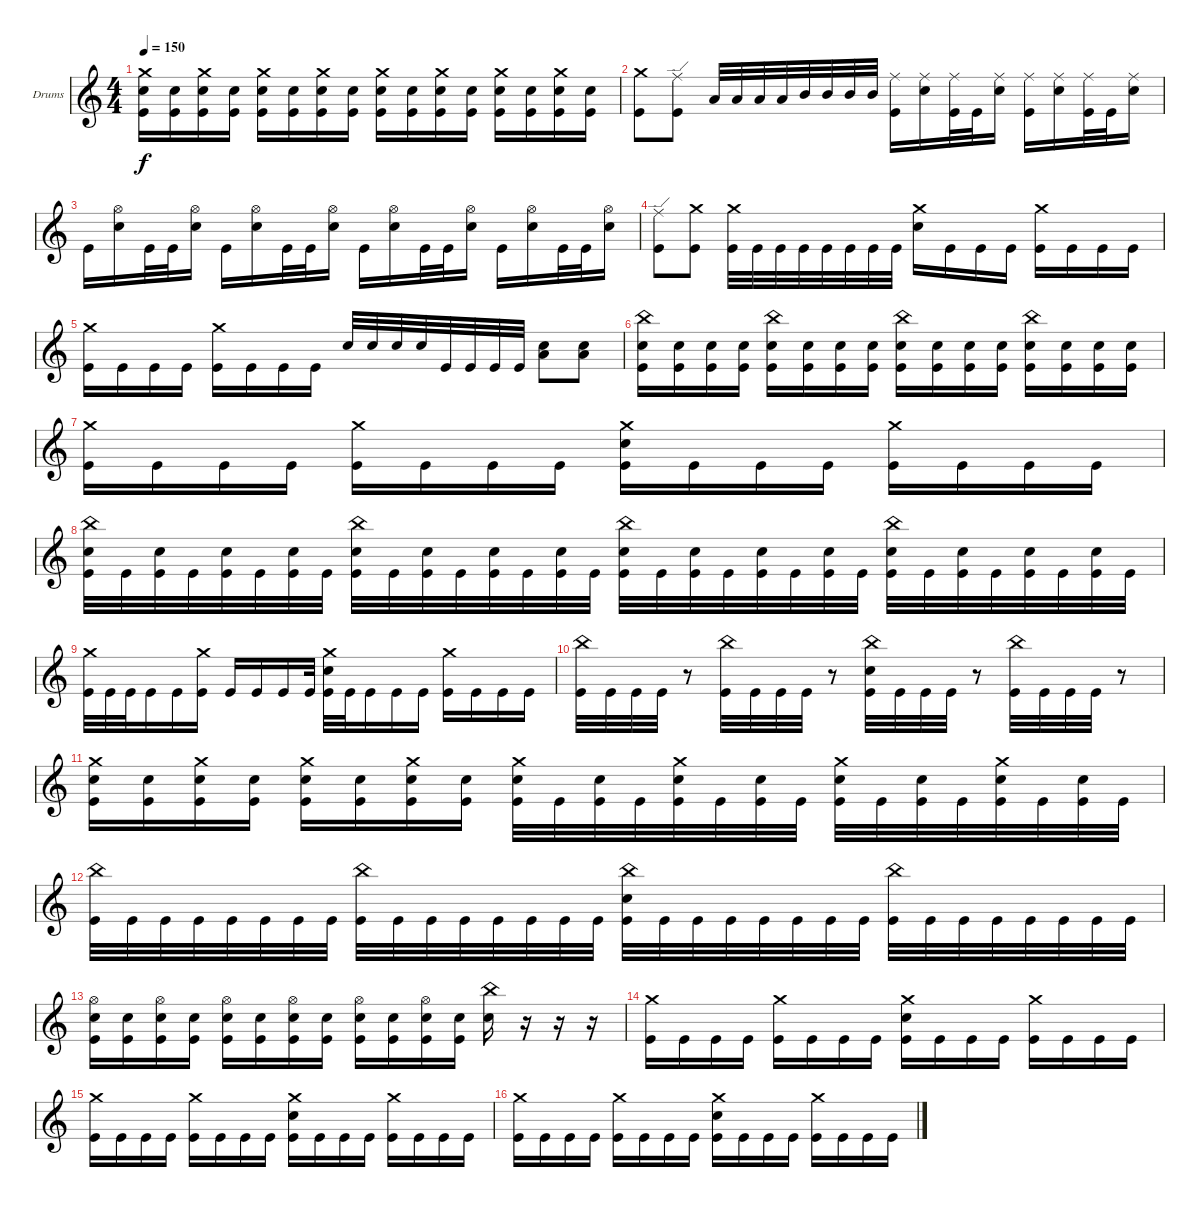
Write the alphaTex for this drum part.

\defaultSystemsLayout 4
\bracketExtendMode groupsimilarinstruments
\firstSystemTrackNameOrientation horizontal
\otherSystemsTrackNameOrientation horizontal
\track ("Drumkit" "Drums") {instrument percussion}
\staff {score}
\articulation defaults
\ts (4 4)
\tempo 150
\clef g2
\ks c
("Kick (hit)" "Snare (hit) 2" "Crash medium (hit)").16{dy f} ("Kick (hit)" "Snare (hit) 2").16 ("Kick (hit)" "Snare (hit) 2" "Crash medium (hit)").16 ("Kick (hit)" "Snare (hit) 2").16 ("Kick (hit)" "Snare (hit) 2" "Crash medium (hit)").16 ("Kick (hit)" "Snare (hit) 2").16 ("Kick (hit)" "Snare (hit) 2" "Crash medium (hit)").16 ("Kick (hit)" "Snare (hit) 2").16 ("Kick (hit)" "Snare (hit) 2" "Crash medium (hit)").16 ("Kick (hit)" "Snare (hit) 2").16 ("Kick (hit)" "Snare (hit) 2" "Crash medium (hit)").16 ("Kick (hit)" "Snare (hit) 2").16 ("Kick (hit)" "Snare (hit) 2" "Crash medium (hit)").16 ("Kick (hit)" "Snare (hit) 2").16 ("Kick (hit)" "Snare (hit) 2" "Crash medium (hit)").16 ("Kick (hit)" "Snare (hit) 2").16 |
("Kick (hit)" "Crash medium (hit)").8 ("Kick (hit)" "Ride (edge)").8 "Low Tom (hit)".32 "Low Tom (hit)".32 "Low Tom (hit)".32 "Low Tom (hit)".32 "Mid Tom (hit)".32 "Mid Tom (hit)".32 "Mid Tom (hit)".32 "Mid Tom (hit)".32 ("Kick (hit)" "Ride (middle)").16 ("Snare (hit) 2" "Ride (middle)").16 ("Kick (hit)" "Ride (middle)").32 "Kick (hit)".32 ("Snare (hit) 2" "Ride (middle)").16 ("Kick (hit)" "Ride (middle)").16 ("Snare (hit) 2" "Ride (middle)").16 ("Kick (hit)" "Ride (middle)").32 "Kick (hit)".32 ("Snare (hit) 2" "Ride (middle)").16 |
"Kick (hit)".16 ("Snare (hit) 2" "Hi-Hat (open)").16 "Kick (hit)".32 "Kick (hit)".32 ("Snare (hit) 2" "Hi-Hat (open)").16 "Kick (hit)".16 ("Snare (hit) 2" "Hi-Hat (open)").16 "Kick (hit)".32 "Kick (hit)".32 ("Snare (hit) 2" "Hi-Hat (open)").16 "Kick (hit)".16 ("Snare (hit) 2" "Hi-Hat (open)").16 "Kick (hit)".32 "Kick (hit)".32 ("Snare (hit) 2" "Hi-Hat (open)").16 "Kick (hit)".16 ("Snare (hit) 2" "Hi-Hat (open)").16 "Kick (hit)".32 "Kick (hit)".32 ("Snare (hit) 2" "Hi-Hat (open)").16 |
("Kick (hit)" "Ride (edge)").8 ("Kick (hit)" "Crash medium (hit)").8 ("Kick (hit)" "Crash medium (hit)").32 "Kick (hit)".32 "Kick (hit)".32 "Kick (hit)".32 "Kick (hit)".32 "Kick (hit)".32 "Kick (hit)".32 "Kick (hit)".32 ("Snare (hit) 2" "Crash medium (hit)").16 "Kick (hit)".16 "Kick (hit)".16 "Kick (hit)".16 ("Kick (hit)" "Crash medium (hit)").16 "Kick (hit)".16 "Kick (hit)".16 "Kick (hit)".16 |
("Kick (hit)" "Crash medium (hit)").16 "Kick (hit)".16 "Kick (hit)".16 "Kick (hit)".16 ("Kick (hit)" "Crash medium (hit)").16 "Kick (hit)".16 "Kick (hit)".16 "Kick (hit)".16 "Snare (hit) 2".32 "Snare (hit) 2".32 "Snare (hit) 2".32 "Snare (hit) 2".32 "Kick (hit)".32 "Kick (hit)".32 "Kick (hit)".32 "Kick (hit)".32 ("Snare (hit) 2" "Low Tom (hit)").8 ("Snare (hit) 2" "Low Tom (hit)").8 |
("Kick (hit)" "Snare (hit) 2" "China (hit)").16 ("Kick (hit)" "Snare (hit) 2").16 ("Kick (hit)" "Snare (hit) 2").16 ("Kick (hit)" "Snare (hit) 2").16 ("Kick (hit)" "Snare (hit) 2" "China (hit)").16 ("Kick (hit)" "Snare (hit) 2").16 ("Kick (hit)" "Snare (hit) 2").16 ("Kick (hit)" "Snare (hit) 2").16 ("Kick (hit)" "Snare (hit) 2" "China (hit)").16 ("Kick (hit)" "Snare (hit) 2").16 ("Kick (hit)" "Snare (hit) 2").16 ("Kick (hit)" "Snare (hit) 2").16 ("Kick (hit)" "Snare (hit) 2" "China (hit)").16 ("Kick (hit)" "Snare (hit) 2").16 ("Kick (hit)" "Snare (hit) 2").16 ("Kick (hit)" "Snare (hit) 2").16 |
("Kick (hit)" "Crash medium (hit)").16 "Kick (hit)".16 "Kick (hit)".16 "Kick (hit)".16 ("Kick (hit)" "Crash medium (hit)").16 "Kick (hit)".16 "Kick (hit)".16 "Kick (hit)".16 ("Kick (hit)" "Crash medium (hit)" "Snare (hit) 2").16 "Kick (hit)".16 "Kick (hit)".16 "Kick (hit)".16 ("Kick (hit)" "Crash medium (hit)").16 "Kick (hit)".16 "Kick (hit)".16 "Kick (hit)".16 |
("Kick (hit)" "Snare (hit) 2" "China (hit)").32 "Kick (hit)".32 ("Kick (hit)" "Snare (hit) 2").32 "Kick (hit)".32 ("Kick (hit)" "Snare (hit) 2").32 "Kick (hit)".32 ("Kick (hit)" "Snare (hit) 2").32 "Kick (hit)".32 ("Kick (hit)" "Snare (hit) 2" "China (hit)").32 "Kick (hit)".32 ("Kick (hit)" "Snare (hit) 2").32 "Kick (hit)".32 ("Kick (hit)" "Snare (hit) 2").32 "Kick (hit)".32 ("Kick (hit)" "Snare (hit) 2").32 "Kick (hit)".32 ("Kick (hit)" "Snare (hit) 2" "China (hit)").32 "Kick (hit)".32 ("Kick (hit)" "Snare (hit) 2").32 "Kick (hit)".32 ("Kick (hit)" "Snare (hit) 2").32 "Kick (hit)".32 ("Kick (hit)" "Snare (hit) 2").32 "Kick (hit)".32 ("Kick (hit)" "Snare (hit) 2" "China (hit)").32 "Kick (hit)".32 ("Kick (hit)" "Snare (hit) 2").32 "Kick (hit)".32 ("Kick (hit)" "Snare (hit) 2").32 "Kick (hit)".32 ("Kick (hit)" "Snare (hit) 2").32 "Kick (hit)".32 |
("Kick (hit)" "Crash medium (hit)").32 "Kick (hit)".32 "Kick (hit)".32 "Kick (hit)".16 "Kick (hit)".16 ("Kick (hit)" "Crash medium (hit)").16 "Kick (hit)".16 "Kick (hit)".16 "Kick (hit)".16 "Kick (hit)".32 ("Kick (hit)" "Crash medium (hit)" "Snare (hit) 2").32 "Kick (hit)".32 "Kick (hit)".16 "Kick (hit)".16 "Kick (hit)".16 ("Kick (hit)" "Crash medium (hit)").16 "Kick (hit)".16 "Kick (hit)".16 "Kick (hit)".16 |
("Kick (hit)" "China (hit)").32 "Kick (hit)".32 "Kick (hit)".32 "Kick (hit)".32 r.8 ("Kick (hit)" "China (hit)").32 "Kick (hit)".32 "Kick (hit)".32 "Kick (hit)".32 r.8 ("Kick (hit)" "China (hit)" "Snare (hit) 2").32 "Kick (hit)".32 "Kick (hit)".32 "Kick (hit)".32 r.8 ("Kick (hit)" "China (hit)").32 "Kick (hit)".32 "Kick (hit)".32 "Kick (hit)".32 r.8 |
("Kick (hit)" "Snare (hit) 2" "Crash medium (hit)").16 ("Kick (hit)" "Snare (hit) 2").16 ("Kick (hit)" "Snare (hit) 2" "Crash medium (hit)").16 ("Kick (hit)" "Snare (hit) 2").16 ("Kick (hit)" "Snare (hit) 2" "Crash medium (hit)").16 ("Kick (hit)" "Snare (hit) 2").16 ("Kick (hit)" "Snare (hit) 2" "Crash medium (hit)").16 ("Kick (hit)" "Snare (hit) 2").16 ("Kick (hit)" "Snare (hit) 2" "Crash medium (hit)").32 "Kick (hit)".32 ("Kick (hit)" "Snare (hit) 2").32 "Kick (hit)".32 ("Kick (hit)" "Snare (hit) 2" "Crash medium (hit)").32 "Kick (hit)".32 ("Kick (hit)" "Snare (hit) 2").32 "Kick (hit)".32 ("Kick (hit)" "Snare (hit) 2" "Crash medium (hit)").32 "Kick (hit)".32 ("Kick (hit)" "Snare (hit) 2").32 "Kick (hit)".32 ("Kick (hit)" "Snare (hit) 2" "Crash medium (hit)").32 "Kick (hit)".32 ("Kick (hit)" "Snare (hit) 2").32 "Kick (hit)".32 |
("Kick (hit)" "China (hit)").32 "Kick (hit)".32 "Kick (hit)".32 "Kick (hit)".32 "Kick (hit)".32 "Kick (hit)".32 "Kick (hit)".32 "Kick (hit)".32 ("Kick (hit)" "China (hit)").32 "Kick (hit)".32 "Kick (hit)".32 "Kick (hit)".32 "Kick (hit)".32 "Kick (hit)".32 "Kick (hit)".32 "Kick (hit)".32 ("Kick (hit)" "China (hit)" "Snare (hit) 2").32 "Kick (hit)".32 "Kick (hit)".32 "Kick (hit)".32 "Kick (hit)".32 "Kick (hit)".32 "Kick (hit)".32 "Kick (hit)".32 ("Kick (hit)" "China (hit)").32 "Kick (hit)".32 "Kick (hit)".32 "Kick (hit)".32 "Kick (hit)".32 "Kick (hit)".32 "Kick (hit)".32 "Kick (hit)".32 |
("Kick (hit)" "Snare (hit) 2" "Hi-Hat (open)").16 ("Kick (hit)" "Snare (hit) 2").16 ("Kick (hit)" "Snare (hit) 2" "Hi-Hat (open)").16 ("Kick (hit)" "Snare (hit) 2").16 ("Kick (hit)" "Snare (hit) 2" "Hi-Hat (open)").16 ("Kick (hit)" "Snare (hit) 2").16 ("Kick (hit)" "Snare (hit) 2" "Hi-Hat (open)").16 ("Kick (hit)" "Snare (hit) 2").16 ("Kick (hit)" "Snare (hit) 2" "Hi-Hat (open)").16 ("Kick (hit)" "Snare (hit) 2").16 ("Kick (hit)" "Snare (hit) 2" "Hi-Hat (open)").16 ("Kick (hit)" "Snare (hit) 2").16 ("Snare (hit) 2" "China (hit)").16 r.16 r.16 r.16 |
("Kick (hit)" "Crash medium (hit)").16 "Kick (hit)".16 "Kick (hit)".16 "Kick (hit)".16 ("Kick (hit)" "Crash medium (hit)").16 "Kick (hit)".16 "Kick (hit)".16 "Kick (hit)".16 ("Kick (hit)" "Crash medium (hit)" "Snare (hit) 2").16 "Kick (hit)".16 "Kick (hit)".16 "Kick (hit)".16 ("Kick (hit)" "Crash medium (hit)").16 "Kick (hit)".16 "Kick (hit)".16 "Kick (hit)".16 |
("Kick (hit)" "Crash medium (hit)").16 "Kick (hit)".16 "Kick (hit)".16 "Kick (hit)".16 ("Kick (hit)" "Crash medium (hit)").16 "Kick (hit)".16 "Kick (hit)".16 "Kick (hit)".16 ("Kick (hit)" "Crash medium (hit)" "Snare (hit) 2").16 "Kick (hit)".16 "Kick (hit)".16 "Kick (hit)".16 ("Kick (hit)" "Crash medium (hit)").16 "Kick (hit)".16 "Kick (hit)".16 "Kick (hit)".16 |
("Kick (hit)" "Crash medium (hit)").16 "Kick (hit)".16 "Kick (hit)".16 "Kick (hit)".16 ("Kick (hit)" "Crash medium (hit)").16 "Kick (hit)".16 "Kick (hit)".16 "Kick (hit)".16 ("Kick (hit)" "Crash medium (hit)" "Snare (hit) 2").16 "Kick (hit)".16 "Kick (hit)".16 "Kick (hit)".16 ("Kick (hit)" "Crash medium (hit)").16 "Kick (hit)".16 "Kick (hit)".16 "Kick (hit)".16
